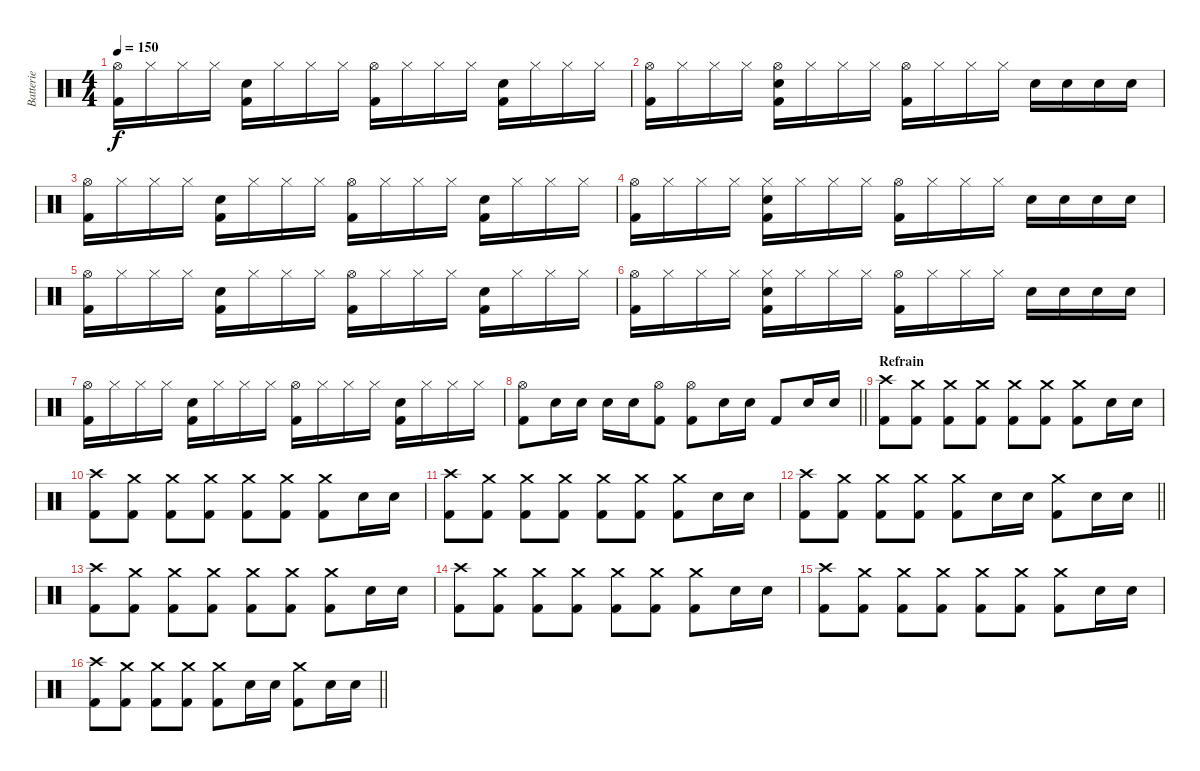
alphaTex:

\track ("Batterie" "Batterie") {instrument percussion}
\staff {score}
\articulation defaults
\ts (4 4)
\tempo 150
\clef neutral
\ks c
("Hi-Hat (open)" "Kick (hit) 2").16{dy f} "Hi-Hat (closed)".16 "Hi-Hat (closed)".16 "Hi-Hat (closed)".16 ("Electric Snare (hit)" "Kick (hit) 2").16 "Hi-Hat (closed)".16 "Hi-Hat (closed)".16 "Hi-Hat (closed)".16 ("Hi-Hat (open)" "Kick (hit) 2").16 "Hi-Hat (closed)".16 "Hi-Hat (closed)".16 "Hi-Hat (closed)".16 ("Electric Snare (hit)" "Kick (hit) 2").16 "Hi-Hat (closed)".16 "Hi-Hat (closed)".16 "Hi-Hat (closed)".16 |
("Hi-Hat (open)" "Kick (hit) 2").16 "Hi-Hat (closed)".16 "Hi-Hat (closed)".16 "Hi-Hat (closed)".16 ("Hi-Hat (open)" "Electric Snare (hit)" "Kick (hit) 2").16 "Hi-Hat (closed)".16 "Hi-Hat (closed)".16 "Hi-Hat (closed)".16 ("Hi-Hat (open)" "Kick (hit) 2").16 "Hi-Hat (closed)".16 "Hi-Hat (closed)".16 "Hi-Hat (closed)".16 "Electric Snare (hit)".16 "Electric Snare (hit)".16 "Electric Snare (hit)".16 "Electric Snare (hit)".16 |
("Hi-Hat (open)" "Kick (hit) 2").16 "Hi-Hat (closed)".16 "Hi-Hat (closed)".16 "Hi-Hat (closed)".16 ("Electric Snare (hit)" "Kick (hit) 2").16 "Hi-Hat (closed)".16 "Hi-Hat (closed)".16 "Hi-Hat (closed)".16 ("Hi-Hat (open)" "Kick (hit) 2").16 "Hi-Hat (closed)".16 "Hi-Hat (closed)".16 "Hi-Hat (closed)".16 ("Electric Snare (hit)" "Kick (hit) 2").16 "Hi-Hat (closed)".16 "Hi-Hat (closed)".16 "Hi-Hat (closed)".16 |
("Hi-Hat (open)" "Kick (hit) 2").16 "Hi-Hat (closed)".16 "Hi-Hat (closed)".16 "Hi-Hat (closed)".16 ("Hi-Hat (closed)" "Electric Snare (hit)" "Kick (hit) 2").16 "Hi-Hat (closed)".16 "Hi-Hat (closed)".16 "Hi-Hat (closed)".16 ("Hi-Hat (open)" "Kick (hit) 2").16 "Hi-Hat (closed)".16 "Hi-Hat (closed)".16 "Hi-Hat (closed)".16 "Electric Snare (hit)".16 "Electric Snare (hit)".16 "Electric Snare (hit)".16 "Electric Snare (hit)".16 |
("Hi-Hat (open)" "Kick (hit) 2").16 "Hi-Hat (closed)".16 "Hi-Hat (closed)".16 "Hi-Hat (closed)".16 ("Electric Snare (hit)" "Kick (hit) 2").16 "Hi-Hat (closed)".16 "Hi-Hat (closed)".16 "Hi-Hat (closed)".16 ("Hi-Hat (open)" "Kick (hit) 2").16 "Hi-Hat (closed)".16 "Hi-Hat (closed)".16 "Hi-Hat (closed)".16 ("Electric Snare (hit)" "Kick (hit) 2").16 "Hi-Hat (closed)".16 "Hi-Hat (closed)".16 "Hi-Hat (closed)".16 |
("Hi-Hat (open)" "Kick (hit) 2").16 "Hi-Hat (closed)".16 "Hi-Hat (closed)".16 "Hi-Hat (closed)".16 ("Hi-Hat (closed)" "Electric Snare (hit)" "Kick (hit) 2").16 "Hi-Hat (closed)".16 "Hi-Hat (closed)".16 "Hi-Hat (closed)".16 ("Hi-Hat (open)" "Kick (hit) 2").16 "Hi-Hat (closed)".16 "Hi-Hat (closed)".16 "Hi-Hat (closed)".16 "Electric Snare (hit)".16 "Electric Snare (hit)".16 "Electric Snare (hit)".16 "Electric Snare (hit)".16 |
("Hi-Hat (open)" "Kick (hit) 2").16 "Hi-Hat (closed)".16 "Hi-Hat (closed)".16 "Hi-Hat (closed)".16 ("Electric Snare (hit)" "Kick (hit) 2").16 "Hi-Hat (closed)".16 "Hi-Hat (closed)".16 "Hi-Hat (closed)".16 ("Hi-Hat (open)" "Kick (hit) 2").16 "Hi-Hat (closed)".16 "Hi-Hat (closed)".16 "Hi-Hat (closed)".16 ("Electric Snare (hit)" "Kick (hit) 2").16 "Hi-Hat (closed)".16 "Hi-Hat (closed)".16 "Hi-Hat (closed)".16 |
\barLineRight lightlight
("Hi-Hat (open)" "Kick (hit) 2").8 "Electric Snare (hit)".16 "Electric Snare (hit)".16 "Electric Snare (hit)".16 "Electric Snare (hit)".16 ("Hi-Hat (open)" "Kick (hit) 2").8 ("Hi-Hat (open)" "Kick (hit) 2").8 "Electric Snare (hit)".16 "Electric Snare (hit)".16 "Kick (hit) 2".8 "Electric Snare (hit)".16 "Electric Snare (hit)".16 |
\section ("" "Refrain")
("Crash high (hit)" "Kick (hit) 2").8 ("Crash medium (hit)" "Kick (hit) 2").8 ("Crash medium (hit)" "Kick (hit) 2").8 ("Crash medium (hit)" "Kick (hit) 2").8 ("Crash medium (hit)" "Kick (hit) 2").8 ("Crash medium (hit)" "Kick (hit) 2").8 ("Crash medium (hit)" "Kick (hit) 2").8 "Electric Snare (hit)".16 "Electric Snare (hit)".16 |
("Crash high (hit)" "Kick (hit) 2").8 ("Crash medium (hit)" "Kick (hit) 2").8 ("Crash medium (hit)" "Kick (hit) 2").8 ("Crash medium (hit)" "Kick (hit) 2").8 ("Crash medium (hit)" "Kick (hit) 2").8 ("Crash medium (hit)" "Kick (hit) 2").8 ("Crash medium (hit)" "Kick (hit) 2").8 "Electric Snare (hit)".16 "Electric Snare (hit)".16 |
("Crash high (hit)" "Kick (hit) 2").8 ("Crash medium (hit)" "Kick (hit) 2").8 ("Crash medium (hit)" "Kick (hit) 2").8 ("Crash medium (hit)" "Kick (hit) 2").8 ("Crash medium (hit)" "Kick (hit) 2").8 ("Crash medium (hit)" "Kick (hit) 2").8 ("Crash medium (hit)" "Kick (hit) 2").8 "Electric Snare (hit)".16 "Electric Snare (hit)".16 |
\barLineRight lightlight
("Crash high (hit)" "Kick (hit) 2").8 ("Crash medium (hit)" "Kick (hit) 2").8 ("Crash medium (hit)" "Kick (hit) 2").8 ("Crash medium (hit)" "Kick (hit) 2").8 ("Crash medium (hit)" "Kick (hit) 2").8 "Electric Snare (hit)".16 "Electric Snare (hit)".16 ("Crash medium (hit)" "Kick (hit) 2").8 "Electric Snare (hit)".16 "Electric Snare (hit)".16 |
("Crash high (hit)" "Kick (hit) 2").8 ("Crash medium (hit)" "Kick (hit) 2").8 ("Crash medium (hit)" "Kick (hit) 2").8 ("Crash medium (hit)" "Kick (hit) 2").8 ("Crash medium (hit)" "Kick (hit) 2").8 ("Crash medium (hit)" "Kick (hit) 2").8 ("Crash medium (hit)" "Kick (hit) 2").8 "Electric Snare (hit)".16 "Electric Snare (hit)".16 |
("Crash high (hit)" "Kick (hit) 2").8 ("Crash medium (hit)" "Kick (hit) 2").8 ("Crash medium (hit)" "Kick (hit) 2").8 ("Crash medium (hit)" "Kick (hit) 2").8 ("Crash medium (hit)" "Kick (hit) 2").8 ("Crash medium (hit)" "Kick (hit) 2").8 ("Crash medium (hit)" "Kick (hit) 2").8 "Electric Snare (hit)".16 "Electric Snare (hit)".16 |
("Crash high (hit)" "Kick (hit) 2").8 ("Crash medium (hit)" "Kick (hit) 2").8 ("Crash medium (hit)" "Kick (hit) 2").8 ("Crash medium (hit)" "Kick (hit) 2").8 ("Crash medium (hit)" "Kick (hit) 2").8 ("Crash medium (hit)" "Kick (hit) 2").8 ("Crash medium (hit)" "Kick (hit) 2").8 "Electric Snare (hit)".16 "Electric Snare (hit)".16 |
\barLineRight lightlight
("Crash high (hit)" "Kick (hit) 2").8 ("Crash medium (hit)" "Kick (hit) 2").8 ("Crash medium (hit)" "Kick (hit) 2").8 ("Crash medium (hit)" "Kick (hit) 2").8 ("Crash medium (hit)" "Kick (hit) 2").8 "Electric Snare (hit)".16 "Electric Snare (hit)".16 ("Crash medium (hit)" "Kick (hit) 2").8 "Electric Snare (hit)".16 "Electric Snare (hit)".16
